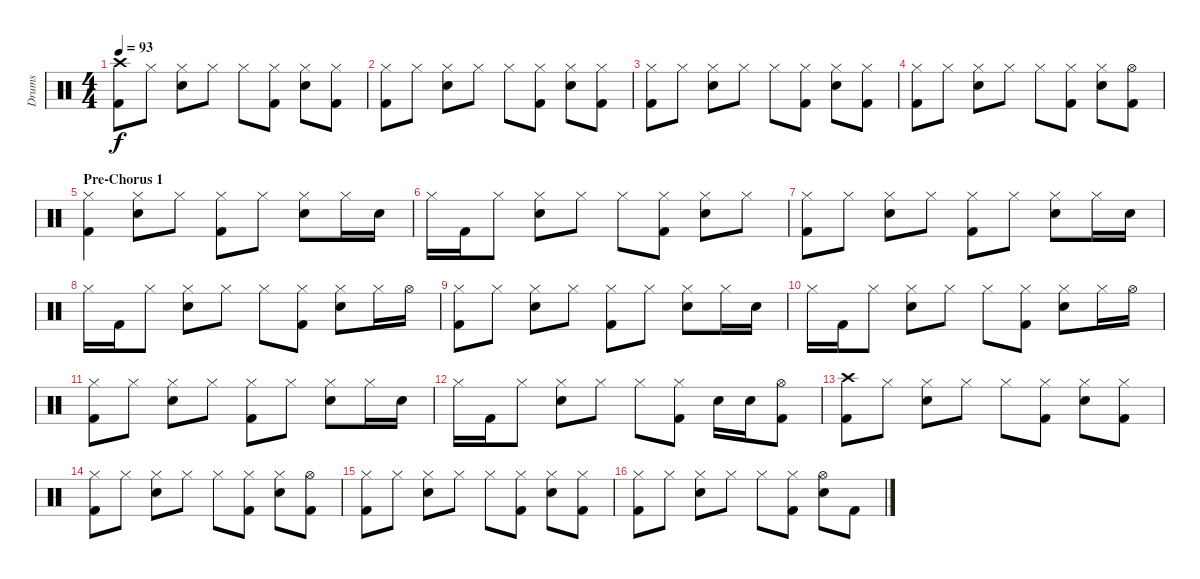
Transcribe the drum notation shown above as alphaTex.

\track ("Drums" "Drums") {instrument percussion}
\staff {score}
\articulation defaults
\ts (4 4)
\tempo 93
\clef neutral
\ks c
("Crash high (hit)" "Kick (hit) 2").8{dy f} "Hi-Hat (closed)".8 ("Hi-Hat (closed)" "Electric Snare (hit)").8 "Hi-Hat (closed)".8 "Hi-Hat (closed)".8 ("Hi-Hat (closed)" "Kick (hit) 2").8 ("Hi-Hat (closed)" "Electric Snare (hit)").8 ("Hi-Hat (closed)" "Kick (hit) 2").8 |
("Hi-Hat (closed)" "Kick (hit) 2").8 "Hi-Hat (closed)".8 ("Hi-Hat (closed)" "Electric Snare (hit)").8 "Hi-Hat (closed)".8 "Hi-Hat (closed)".8 ("Hi-Hat (closed)" "Kick (hit) 2").8 ("Hi-Hat (closed)" "Electric Snare (hit)").8 ("Hi-Hat (closed)" "Kick (hit) 2").8 |
("Hi-Hat (closed)" "Kick (hit) 2").8 "Hi-Hat (closed)".8 ("Hi-Hat (closed)" "Electric Snare (hit)").8 "Hi-Hat (closed)".8 "Hi-Hat (closed)".8 ("Hi-Hat (closed)" "Kick (hit) 2").8 ("Hi-Hat (closed)" "Electric Snare (hit)").8 ("Hi-Hat (closed)" "Kick (hit) 2").8 |
("Hi-Hat (closed)" "Kick (hit) 2").8 "Hi-Hat (closed)".8 ("Hi-Hat (closed)" "Electric Snare (hit)").8 "Hi-Hat (closed)".8 "Hi-Hat (closed)".8 ("Hi-Hat (closed)" "Kick (hit) 2").8 ("Hi-Hat (closed)" "Electric Snare (hit)").8 ("Hi-Hat (open)" "Kick (hit) 2").8 |
\section ("" "Pre-Chorus 1")
("Hi-Hat (closed)" "Kick (hit) 2").4 ("Hi-Hat (closed)" "Electric Snare (hit)").8 "Hi-Hat (closed)".8 ("Hi-Hat (closed)" "Kick (hit) 2").8 "Hi-Hat (closed)".8 ("Hi-Hat (closed)" "Electric Snare (hit)").8 "Hi-Hat (closed)".16 "Electric Snare (hit)".16 |
"Hi-Hat (closed)".16 "Kick (hit) 2".16 "Hi-Hat (closed)".8 ("Hi-Hat (closed)" "Electric Snare (hit)").8 "Hi-Hat (closed)".8 "Hi-Hat (closed)".8 ("Hi-Hat (closed)" "Kick (hit) 2").8 ("Hi-Hat (closed)" "Electric Snare (hit)").8 "Hi-Hat (closed)".8 |
("Hi-Hat (closed)" "Kick (hit) 2").8 "Hi-Hat (closed)".8 ("Hi-Hat (closed)" "Electric Snare (hit)").8 "Hi-Hat (closed)".8 ("Hi-Hat (closed)" "Kick (hit) 2").8 "Hi-Hat (closed)".8 ("Hi-Hat (closed)" "Electric Snare (hit)").8 "Hi-Hat (closed)".16 "Electric Snare (hit)".16 |
"Hi-Hat (closed)".16 "Kick (hit) 2".16 "Hi-Hat (closed)".8 ("Hi-Hat (closed)" "Electric Snare (hit)").8 "Hi-Hat (closed)".8 "Hi-Hat (closed)".8 ("Hi-Hat (closed)" "Kick (hit) 2").8 ("Hi-Hat (closed)" "Electric Snare (hit)").8 "Hi-Hat (closed)".16 "Hi-Hat (open)".16 |
("Hi-Hat (closed)" "Kick (hit) 2").8 "Hi-Hat (closed)".8 ("Hi-Hat (closed)" "Electric Snare (hit)").8 "Hi-Hat (closed)".8 ("Hi-Hat (closed)" "Kick (hit) 2").8 "Hi-Hat (closed)".8 ("Hi-Hat (closed)" "Electric Snare (hit)").8 "Hi-Hat (closed)".16 "Electric Snare (hit)".16 |
"Hi-Hat (closed)".16 "Kick (hit) 2".16 "Hi-Hat (closed)".8 ("Hi-Hat (closed)" "Electric Snare (hit)").8 "Hi-Hat (closed)".8 "Hi-Hat (closed)".8 ("Hi-Hat (closed)" "Kick (hit) 2").8 ("Hi-Hat (closed)" "Electric Snare (hit)").8 "Hi-Hat (closed)".16 "Hi-Hat (open)".16 |
("Hi-Hat (closed)" "Kick (hit) 2").8 "Hi-Hat (closed)".8 ("Hi-Hat (closed)" "Electric Snare (hit)").8 "Hi-Hat (closed)".8 ("Hi-Hat (closed)" "Kick (hit) 2").8 "Hi-Hat (closed)".8 ("Hi-Hat (closed)" "Electric Snare (hit)").8 "Hi-Hat (closed)".16 "Electric Snare (hit)".16 |
"Hi-Hat (closed)".16 "Kick (hit) 2".16 "Hi-Hat (closed)".8 ("Hi-Hat (closed)" "Electric Snare (hit)").8 "Hi-Hat (closed)".8 "Hi-Hat (closed)".8 ("Hi-Hat (closed)" "Kick (hit) 2").8 "Electric Snare (hit)".16 "Electric Snare (hit)".16 ("Hi-Hat (open)" "Kick (hit) 2").8 |
("Crash high (hit)" "Kick (hit) 2").8 "Hi-Hat (closed)".8 ("Hi-Hat (closed)" "Electric Snare (hit)").8 "Hi-Hat (closed)".8 "Hi-Hat (closed)".8 ("Hi-Hat (closed)" "Kick (hit) 2").8 ("Hi-Hat (closed)" "Electric Snare (hit)").8 ("Hi-Hat (closed)" "Kick (hit) 2").8 |
("Hi-Hat (closed)" "Kick (hit) 2").8 "Hi-Hat (closed)".8 ("Hi-Hat (closed)" "Electric Snare (hit)").8 "Hi-Hat (closed)".8 "Hi-Hat (closed)".8 ("Hi-Hat (closed)" "Kick (hit) 2").8 ("Hi-Hat (closed)" "Electric Snare (hit)").8 ("Hi-Hat (open)" "Kick (hit) 2").8 |
("Hi-Hat (closed)" "Kick (hit) 2").8 "Hi-Hat (closed)".8 ("Hi-Hat (closed)" "Electric Snare (hit)").8 "Hi-Hat (closed)".8 "Hi-Hat (closed)".8 ("Hi-Hat (closed)" "Kick (hit) 2").8 ("Hi-Hat (closed)" "Electric Snare (hit)").8 ("Hi-Hat (closed)" "Kick (hit) 2").8 |
("Hi-Hat (closed)" "Kick (hit) 2").8 "Hi-Hat (closed)".8 ("Hi-Hat (closed)" "Electric Snare (hit)").8 "Hi-Hat (closed)".8 "Hi-Hat (closed)".8 ("Hi-Hat (closed)" "Kick (hit) 2").8 ("Hi-Hat (open)" "Electric Snare (hit)").8 "Kick (hit) 2".8
